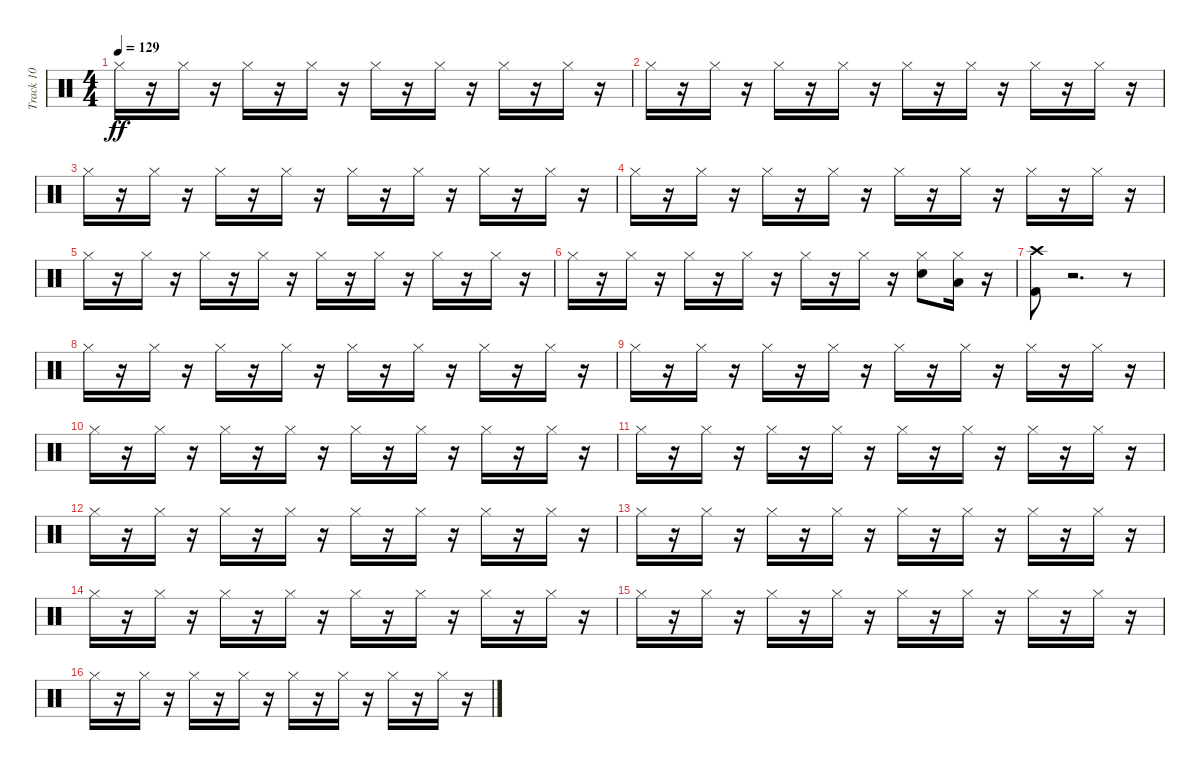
\track ("Track 10" "Track 10") {instrument percussion}
\staff {score}
\articulation defaults
\ts (4 4)
\tempo 129
\clef neutral
\ks c "Hi-Hat (closed)".16{dy ff}
r.16 "Hi-Hat (closed)".16 r.16 "Hi-Hat (closed)".16 r.16 "Hi-Hat (closed)".16 r.16 "Hi-Hat (closed)".16 r.16 "Hi-Hat (closed)".16 r.16 "Hi-Hat (closed)".16 r.16 "Hi-Hat (closed)".16 r.16 |
"Hi-Hat (closed)".16 r.16 "Hi-Hat (closed)".16 r.16 "Hi-Hat (closed)".16 r.16 "Hi-Hat (closed)".16 r.16 "Hi-Hat (closed)".16 r.16 "Hi-Hat (closed)".16 r.16 "Hi-Hat (closed)".16 r.16 "Hi-Hat (closed)".16 r.16 |
"Hi-Hat (closed)".16 r.16 "Hi-Hat (closed)".16 r.16 "Hi-Hat (closed)".16 r.16 "Hi-Hat (closed)".16 r.16 "Hi-Hat (closed)".16 r.16 "Hi-Hat (closed)".16 r.16 "Hi-Hat (closed)".16 r.16 "Hi-Hat (closed)".16 r.16 |
"Hi-Hat (closed)".16 r.16 "Hi-Hat (closed)".16 r.16 "Hi-Hat (closed)".16 r.16 "Hi-Hat (closed)".16 r.16 "Hi-Hat (closed)".16 r.16 "Hi-Hat (closed)".16 r.16 "Hi-Hat (closed)".16 r.16 "Hi-Hat (closed)".16 r.16 |
"Hi-Hat (closed)".16 r.16 "Hi-Hat (closed)".16 r.16 "Hi-Hat (closed)".16 r.16 "Hi-Hat (closed)".16 r.16 "Hi-Hat (closed)".16 r.16 "Hi-Hat (closed)".16 r.16 "Hi-Hat (closed)".16 r.16 "Hi-Hat (closed)".16 r.16 |
"Hi-Hat (closed)".16 r.16 "Hi-Hat (closed)".16 r.16 "Hi-Hat (closed)".16 r.16 "Hi-Hat (closed)".16 r.16 "Hi-Hat (closed)".16 r.16 "Hi-Hat (closed)".16 r.16 ("Hi-Hat (closed)" "Snare (hit) 2").8 ("Hi-Hat (closed)" "Low Floor Tom (hit)").16 r.16 |
("Crash high (hit)" "Kick (hit) 2").8 r.2{d} r.8 |
"Hi-Hat (closed)".16 r.16 "Hi-Hat (closed)".16 r.16 "Hi-Hat (closed)".16 r.16 "Hi-Hat (closed)".16 r.16 "Hi-Hat (closed)".16 r.16 "Hi-Hat (closed)".16 r.16 "Hi-Hat (closed)".16 r.16 "Hi-Hat (closed)".16 r.16 |
"Hi-Hat (closed)".16 r.16 "Hi-Hat (closed)".16 r.16 "Hi-Hat (closed)".16 r.16 "Hi-Hat (closed)".16 r.16 "Hi-Hat (closed)".16 r.16 "Hi-Hat (closed)".16 r.16 "Hi-Hat (closed)".16 r.16 "Hi-Hat (closed)".16 r.16 |
"Hi-Hat (closed)".16 r.16 "Hi-Hat (closed)".16 r.16 "Hi-Hat (closed)".16 r.16 "Hi-Hat (closed)".16 r.16 "Hi-Hat (closed)".16 r.16 "Hi-Hat (closed)".16 r.16 "Hi-Hat (closed)".16 r.16 "Hi-Hat (closed)".16 r.16 |
"Hi-Hat (closed)".16 r.16 "Hi-Hat (closed)".16 r.16 "Hi-Hat (closed)".16 r.16 "Hi-Hat (closed)".16 r.16 "Hi-Hat (closed)".16 r.16 "Hi-Hat (closed)".16 r.16 "Hi-Hat (closed)".16 r.16 "Hi-Hat (closed)".16 r.16 |
"Hi-Hat (closed)".16 r.16 "Hi-Hat (closed)".16 r.16 "Hi-Hat (closed)".16 r.16 "Hi-Hat (closed)".16 r.16 "Hi-Hat (closed)".16 r.16 "Hi-Hat (closed)".16 r.16 "Hi-Hat (closed)".16 r.16 "Hi-Hat (closed)".16 r.16 |
"Hi-Hat (closed)".16 r.16 "Hi-Hat (closed)".16 r.16 "Hi-Hat (closed)".16 r.16 "Hi-Hat (closed)".16 r.16 "Hi-Hat (closed)".16 r.16 "Hi-Hat (closed)".16 r.16 "Hi-Hat (closed)".16 r.16 "Hi-Hat (closed)".16 r.16 |
"Hi-Hat (closed)".16 r.16 "Hi-Hat (closed)".16 r.16 "Hi-Hat (closed)".16 r.16 "Hi-Hat (closed)".16 r.16 "Hi-Hat (closed)".16 r.16 "Hi-Hat (closed)".16 r.16 "Hi-Hat (closed)".16 r.16 "Hi-Hat (closed)".16 r.16 |
"Hi-Hat (closed)".16 r.16 "Hi-Hat (closed)".16 r.16 "Hi-Hat (closed)".16 r.16 "Hi-Hat (closed)".16 r.16 "Hi-Hat (closed)".16 r.16 "Hi-Hat (closed)".16 r.16 "Hi-Hat (closed)".16 r.16 "Hi-Hat (closed)".16 r.16 |
"Hi-Hat (closed)".16 r.16 "Hi-Hat (closed)".16 r.16 "Hi-Hat (closed)".16 r.16 "Hi-Hat (closed)".16 r.16 "Hi-Hat (closed)".16 r.16 "Hi-Hat (closed)".16 r.16 "Hi-Hat (closed)".16 r.16 "Hi-Hat (closed)".16 r.16
